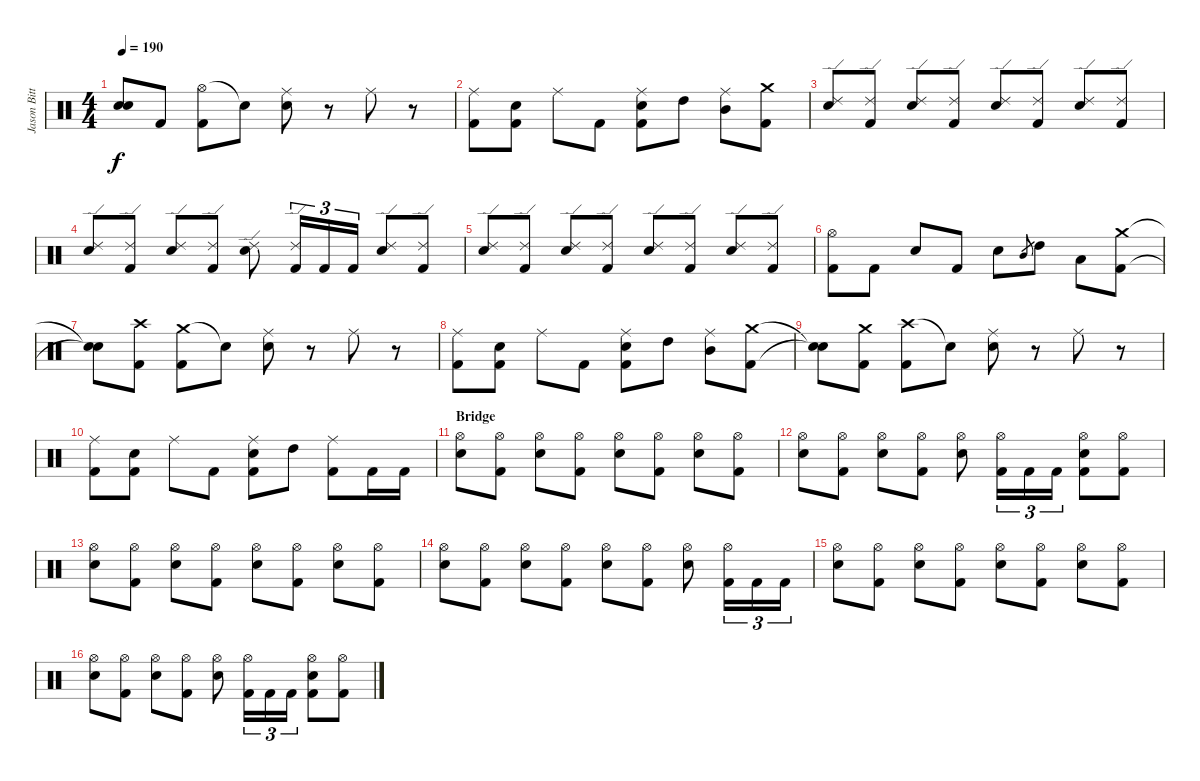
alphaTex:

\track ("Jason Bittner" "Jason Bitt") {instrument percussion}
\staff {score}
\articulation defaults
\ts (4 4)
\tempo 190
\clef neutral
\ks c
("Snare (hit)"{t} "Snare (hit)"{t}).8{dy f} "Kick (hit) 2".8 ("Hi-Hat (open)" "Kick (hit) 2").8 "Snare (hit)"{t}.8 ("Ride (middle)" "Snare (hit) 2").8 r.8 "Ride (middle)".8 r.8 |
("Ride (middle)" "Kick (hit) 2").8 ("Snare (hit) 2" "Kick (hit) 2").8 "Ride (middle)".8 "Kick (hit) 2".8 ("Ride (middle)" "Snare (hit) 2" "Kick (hit) 2").8 "High Tom (hit)".8 ("Ride (middle)" "Mid Tom (hit)").8 ("Crash medium (hit)" "Kick (hit) 2").8 |
("Ride (edge) 2" "Snare (hit) 2").8 ("Ride (edge) 2" "Kick (hit) 2").8 ("Ride (edge) 2" "Snare (hit) 2").8 ("Ride (edge) 2" "Kick (hit) 2").8 ("Ride (edge) 2" "Snare (hit) 2").8 ("Ride (edge) 2" "Kick (hit) 2").8 ("Ride (edge) 2" "Snare (hit) 2").8 ("Ride (edge) 2" "Kick (hit) 2").8 |
("Ride (edge) 2" "Snare (hit) 2").8 ("Ride (edge) 2" "Kick (hit) 2").8 ("Ride (edge) 2" "Snare (hit) 2").8 ("Ride (edge) 2" "Kick (hit) 2").8 ("Ride (edge) 2" "Snare (hit) 2").8 ("Ride (edge) 2" "Kick (hit) 2").16{tu (3 2)} "Kick (hit) 2".16{tu (3 2)} "Kick (hit) 2".16{tu (3 2)} ("Ride (edge) 2" "Snare (hit) 2").8 ("Ride (edge) 2" "Kick (hit) 2").8 |
("Ride (edge) 2" "Snare (hit) 2").8 ("Ride (edge) 2" "Kick (hit) 2").8 ("Ride (edge) 2" "Snare (hit) 2").8 ("Ride (edge) 2" "Kick (hit) 2").8 ("Ride (edge) 2" "Snare (hit) 2").8 ("Ride (edge) 2" "Kick (hit) 2").8 ("Ride (edge) 2" "Snare (hit) 2").8 ("Ride (edge) 2" "Kick (hit) 2").8 |
("Hi-Hat (open)" "Kick (hit) 2").8 "Kick (hit) 2".8 "Snare (hit) 2".8 "Kick (hit) 2".8 "Snare (hit) 2".8 "Mid Tom (hit)".8{gr} "High Tom (hit)".8 "Low Tom (hit)".8 ("Crash medium (hit)" "Kick (hit) 2").8 |
("Snare (hit)"{t} "Snare (hit)"{t}).8 ("Crash high (hit)" "Kick (hit) 2").8 ("Crash medium (hit)" "Kick (hit) 2").8 "Snare (hit)"{t}.8 ("Ride (middle)" "Snare (hit) 2").8 r.8 "Ride (middle)".8 r.8 |
("Ride (middle)" "Kick (hit) 2").8 ("Snare (hit) 2" "Kick (hit) 2").8 "Ride (middle)".8 "Kick (hit) 2".8 ("Ride (middle)" "Snare (hit) 2" "Kick (hit) 2").8 "High Tom (hit)".8 ("Ride (middle)" "Mid Tom (hit)").8 ("Crash medium (hit)" "Kick (hit) 2").8 |
("Snare (hit)"{t} "Snare (hit)"{t}).8 ("Crash medium (hit)" "Kick (hit) 2").8 ("Crash high (hit)" "Kick (hit) 2").8 "Snare (hit)"{t}.8 ("Ride (middle)" "Snare (hit) 2").8 r.8 "Ride (middle)".8 r.8 |
("Ride (middle)" "Kick (hit) 2").8 ("Snare (hit) 2" "Kick (hit) 2").8 "Ride (middle)".8 "Kick (hit) 2".8 ("Ride (middle)" "Snare (hit) 2" "Kick (hit) 2").8 "High Tom (hit)".8 ("Ride (middle)" "Kick (hit) 2").8 "Kick (hit) 2".16 "Kick (hit) 2".16 |
\section ("" "Bridge")
("Hi-Hat (open)" "Snare (hit) 2").8 ("Hi-Hat (open)" "Kick (hit) 2").8 ("Hi-Hat (open)" "Snare (hit) 2").8 ("Hi-Hat (open)" "Kick (hit) 2").8 ("Hi-Hat (open)" "Snare (hit) 2").8 ("Hi-Hat (open)" "Kick (hit) 2").8 ("Hi-Hat (open)" "Snare (hit) 2").8 ("Hi-Hat (open)" "Kick (hit) 2").8 |
("Hi-Hat (open)" "Snare (hit) 2").8 ("Hi-Hat (open)" "Kick (hit) 2").8 ("Hi-Hat (open)" "Snare (hit) 2").8 ("Hi-Hat (open)" "Kick (hit) 2").8 ("Hi-Hat (open)" "Snare (hit) 2").8 ("Hi-Hat (open)" "Kick (hit) 2").16{tu (3 2)} "Kick (hit) 2".16{tu (3 2)} "Kick (hit) 2".16{tu (3 2)} ("Hi-Hat (open)" "Snare (hit) 2" "Kick (hit) 2").8 ("Hi-Hat (open)" "Kick (hit) 2").8 |
("Hi-Hat (open)" "Snare (hit) 2").8 ("Hi-Hat (open)" "Kick (hit) 2").8 ("Hi-Hat (open)" "Snare (hit) 2").8 ("Hi-Hat (open)" "Kick (hit) 2").8 ("Hi-Hat (open)" "Snare (hit) 2").8 ("Hi-Hat (open)" "Kick (hit) 2").8 ("Hi-Hat (open)" "Snare (hit) 2").8 ("Hi-Hat (open)" "Kick (hit) 2").8 |
("Hi-Hat (open)" "Snare (hit) 2").8 ("Hi-Hat (open)" "Kick (hit) 2").8 ("Hi-Hat (open)" "Snare (hit) 2").8 ("Hi-Hat (open)" "Kick (hit) 2").8 ("Hi-Hat (open)" "Snare (hit) 2").8 ("Hi-Hat (open)" "Kick (hit) 2").8 ("Hi-Hat (open)" "Snare (hit) 2").8 ("Hi-Hat (open)" "Kick (hit) 2").16{tu (3 2)} "Kick (hit) 2".16{tu (3 2)} "Kick (hit) 2".16{tu (3 2)} |
("Hi-Hat (open)" "Snare (hit) 2").8 ("Hi-Hat (open)" "Kick (hit) 2").8 ("Hi-Hat (open)" "Snare (hit) 2").8 ("Hi-Hat (open)" "Kick (hit) 2").8 ("Hi-Hat (open)" "Snare (hit) 2").8 ("Hi-Hat (open)" "Kick (hit) 2").8 ("Hi-Hat (open)" "Snare (hit) 2").8 ("Hi-Hat (open)" "Kick (hit) 2").8 |
("Hi-Hat (open)" "Snare (hit) 2").8 ("Hi-Hat (open)" "Kick (hit) 2").8 ("Hi-Hat (open)" "Snare (hit) 2").8 ("Hi-Hat (open)" "Kick (hit) 2").8 ("Hi-Hat (open)" "Snare (hit) 2").8 ("Hi-Hat (open)" "Kick (hit) 2").16{tu (3 2)} "Kick (hit) 2".16{tu (3 2)} "Kick (hit) 2".16{tu (3 2)} ("Hi-Hat (open)" "Snare (hit) 2" "Kick (hit) 2").8 ("Hi-Hat (open)" "Kick (hit) 2").8
